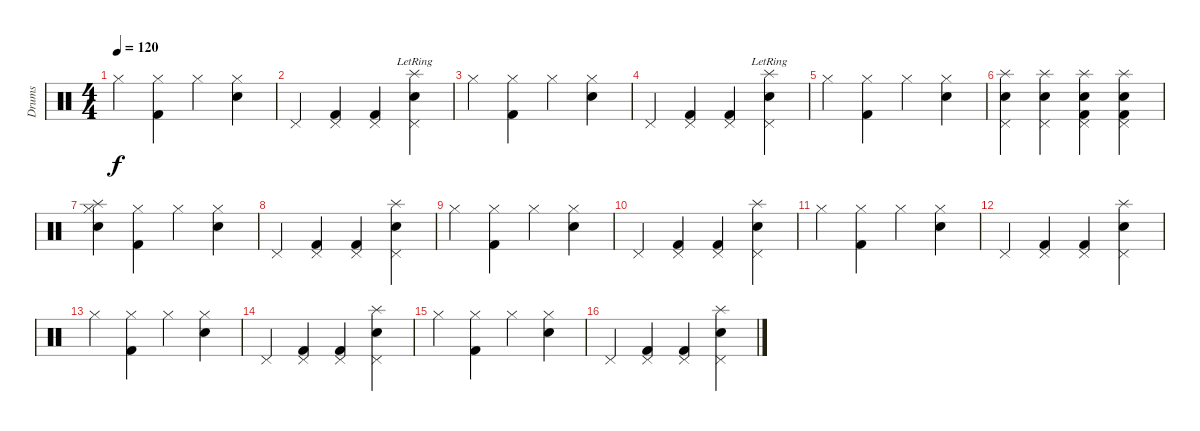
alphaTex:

\track ("Drums" "Drums") {instrument percussion}
\staff {score}
\articulation defaults
\ts (4 4)
\tempo 120
\clef neutral
\ks c "Hi-Hat (closed)".4{dy f}
("Hi-Hat (closed)" "Kick (hit) 2").4 "Hi-Hat (closed)".4 ("Hi-Hat (closed)" "Snare (hit) 2").4 |
"Pedal Hi-Hat (hit)".4 ("Pedal Hi-Hat (hit)" "Kick (hit) 2").4 ("Pedal Hi-Hat (hit)" "Kick (hit) 2").4 ("Pedal Hi-Hat (hit)" "Splash (hit)"{lr} "Snare (hit) 2").4 |
"Hi-Hat (closed)".4 ("Hi-Hat (closed)" "Kick (hit) 2").4 "Hi-Hat (closed)".4 ("Hi-Hat (closed)" "Snare (hit) 2").4 |
"Pedal Hi-Hat (hit)".4 ("Pedal Hi-Hat (hit)" "Kick (hit) 2").4 ("Pedal Hi-Hat (hit)" "Kick (hit) 2").4 ("Pedal Hi-Hat (hit)" "Splash (hit)"{lr} "Snare (hit) 2").4 |
"Hi-Hat (closed)".4 ("Hi-Hat (closed)" "Kick (hit) 2").4 "Hi-Hat (closed)".4 ("Hi-Hat (closed)" "Snare (hit) 2").4 |
("Pedal Hi-Hat (hit)" "Splash (hit)" "Snare (hit) 2").4 ("Pedal Hi-Hat (hit)" "Splash (hit)" "Snare (hit) 2").4 ("Pedal Hi-Hat (hit)" "Splash (hit)" "Snare (hit) 2" "Kick (hit) 2").4 ("Pedal Hi-Hat (hit)" "Splash (hit)" "Snare (hit) 2" "Kick (hit) 2").4 |
("Hi-Hat (closed)" "Splash (hit)" "Snare (hit) 2").4 ("Hi-Hat (closed)" "Kick (hit) 2").4 "Hi-Hat (closed)".4 ("Hi-Hat (closed)" "Snare (hit) 2").4 |
"Pedal Hi-Hat (hit)".4 ("Pedal Hi-Hat (hit)" "Kick (hit) 2").4 ("Pedal Hi-Hat (hit)" "Kick (hit) 2").4 ("Pedal Hi-Hat (hit)" "Splash (hit)" "Snare (hit) 2").4 |
"Hi-Hat (closed)".4 ("Hi-Hat (closed)" "Kick (hit) 2").4 "Hi-Hat (closed)".4 ("Hi-Hat (closed)" "Snare (hit) 2").4 |
"Pedal Hi-Hat (hit)".4 ("Pedal Hi-Hat (hit)" "Kick (hit) 2").4 ("Pedal Hi-Hat (hit)" "Kick (hit) 2").4 ("Pedal Hi-Hat (hit)" "Splash (hit)" "Snare (hit) 2").4 |
"Hi-Hat (closed)".4 ("Hi-Hat (closed)" "Kick (hit) 2").4 "Hi-Hat (closed)".4 ("Hi-Hat (closed)" "Snare (hit) 2").4 |
"Pedal Hi-Hat (hit)".4 ("Pedal Hi-Hat (hit)" "Kick (hit) 2").4 ("Pedal Hi-Hat (hit)" "Kick (hit) 2").4 ("Pedal Hi-Hat (hit)" "Splash (hit)" "Snare (hit) 2").4 |
"Hi-Hat (closed)".4 ("Hi-Hat (closed)" "Kick (hit) 2").4 "Hi-Hat (closed)".4 ("Hi-Hat (closed)" "Snare (hit) 2").4 |
"Pedal Hi-Hat (hit)".4 ("Pedal Hi-Hat (hit)" "Kick (hit) 2").4 ("Pedal Hi-Hat (hit)" "Kick (hit) 2").4 ("Pedal Hi-Hat (hit)" "Splash (hit)" "Snare (hit) 2").4 |
"Hi-Hat (closed)".4 ("Hi-Hat (closed)" "Kick (hit) 2").4 "Hi-Hat (closed)".4 ("Hi-Hat (closed)" "Snare (hit) 2").4 |
"Pedal Hi-Hat (hit)".4 ("Pedal Hi-Hat (hit)" "Kick (hit) 2").4 ("Pedal Hi-Hat (hit)" "Kick (hit) 2").4 ("Pedal Hi-Hat (hit)" "Splash (hit)" "Snare (hit) 2").4
